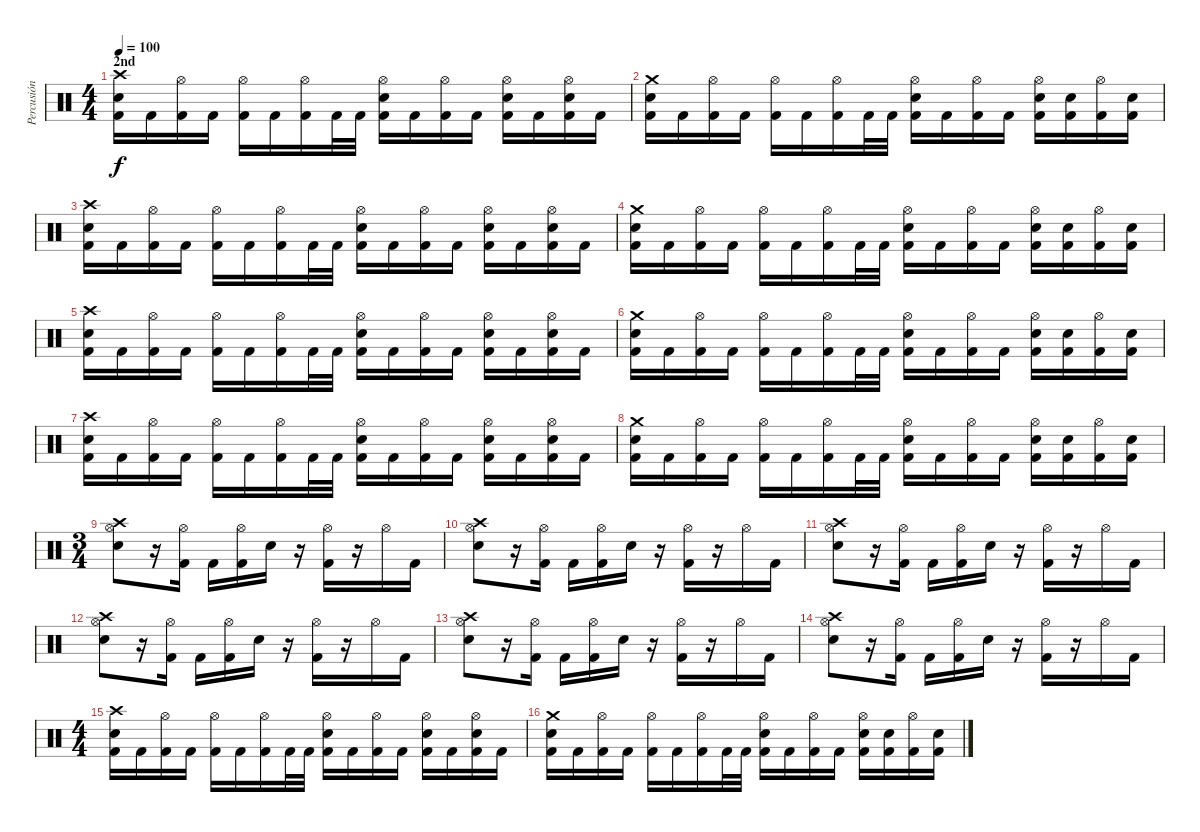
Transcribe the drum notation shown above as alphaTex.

\track ("Percusión" "Percusión") {instrument percussion}
\staff {score}
\articulation defaults
\ts (4 4)
\section ("" "2nd")
\tempo 100
\clef neutral
\ks c
("Crash high (hit)" "Electric Snare (hit)" "Kick (hit) 2").16{dy f} "Kick (hit) 2".16 ("Hi-Hat (open)" "Kick (hit) 2").16 "Kick (hit) 2".16 ("Hi-Hat (open)" "Kick (hit) 2").16 "Kick (hit) 2".16 ("Hi-Hat (open)" "Kick (hit) 2").16 "Kick (hit) 2".32 "Kick (hit) 2".32 ("Hi-Hat (open)" "Electric Snare (hit)" "Kick (hit) 2").16 "Kick (hit) 2".16 ("Hi-Hat (open)" "Kick (hit) 2").16 "Kick (hit) 2".16 ("Hi-Hat (open)" "Electric Snare (hit)" "Kick (hit) 2").16 "Kick (hit) 2".16 ("Hi-Hat (open)" "Electric Snare (hit)" "Kick (hit) 2").16 "Kick (hit) 2".16 |
("Crash medium (hit)" "Electric Snare (hit)" "Kick (hit) 2").16 "Kick (hit) 2".16 ("Hi-Hat (open)" "Kick (hit) 2").16 "Kick (hit) 2".16 ("Hi-Hat (open)" "Kick (hit) 2").16 "Kick (hit) 2".16 ("Hi-Hat (open)" "Kick (hit) 2").16 "Kick (hit) 2".32 "Kick (hit) 2".32 ("Hi-Hat (open)" "Electric Snare (hit)" "Kick (hit) 2").16 "Kick (hit) 2".16 ("Hi-Hat (open)" "Kick (hit) 2").16 "Kick (hit) 2".16 ("Hi-Hat (open)" "Electric Snare (hit)" "Kick (hit) 2").16 ("Electric Snare (hit)" "Kick (hit) 2").16 ("Hi-Hat (open)" "Kick (hit) 2").16 ("Electric Snare (hit)" "Kick (hit) 2").16 |
("Crash high (hit)" "Electric Snare (hit)" "Kick (hit) 2").16 "Kick (hit) 2".16 ("Hi-Hat (open)" "Kick (hit) 2").16 "Kick (hit) 2".16 ("Hi-Hat (open)" "Kick (hit) 2").16 "Kick (hit) 2".16 ("Hi-Hat (open)" "Kick (hit) 2").16 "Kick (hit) 2".32 "Kick (hit) 2".32 ("Hi-Hat (open)" "Electric Snare (hit)" "Kick (hit) 2").16 "Kick (hit) 2".16 ("Hi-Hat (open)" "Kick (hit) 2").16 "Kick (hit) 2".16 ("Hi-Hat (open)" "Electric Snare (hit)" "Kick (hit) 2").16 "Kick (hit) 2".16 ("Hi-Hat (open)" "Electric Snare (hit)" "Kick (hit) 2").16 "Kick (hit) 2".16 |
("Crash medium (hit)" "Electric Snare (hit)" "Kick (hit) 2").16 "Kick (hit) 2".16 ("Hi-Hat (open)" "Kick (hit) 2").16 "Kick (hit) 2".16 ("Hi-Hat (open)" "Kick (hit) 2").16 "Kick (hit) 2".16 ("Hi-Hat (open)" "Kick (hit) 2").16 "Kick (hit) 2".32 "Kick (hit) 2".32 ("Hi-Hat (open)" "Electric Snare (hit)" "Kick (hit) 2").16 "Kick (hit) 2".16 ("Hi-Hat (open)" "Kick (hit) 2").16 "Kick (hit) 2".16 ("Hi-Hat (open)" "Electric Snare (hit)" "Kick (hit) 2").16 ("Electric Snare (hit)" "Kick (hit) 2").16 ("Hi-Hat (open)" "Kick (hit) 2").16 ("Electric Snare (hit)" "Kick (hit) 2").16 |
("Crash high (hit)" "Electric Snare (hit)" "Kick (hit) 2").16 "Kick (hit) 2".16 ("Hi-Hat (open)" "Kick (hit) 2").16 "Kick (hit) 2".16 ("Hi-Hat (open)" "Kick (hit) 2").16 "Kick (hit) 2".16 ("Hi-Hat (open)" "Kick (hit) 2").16 "Kick (hit) 2".32 "Kick (hit) 2".32 ("Hi-Hat (open)" "Electric Snare (hit)" "Kick (hit) 2").16 "Kick (hit) 2".16 ("Hi-Hat (open)" "Kick (hit) 2").16 "Kick (hit) 2".16 ("Hi-Hat (open)" "Electric Snare (hit)" "Kick (hit) 2").16 "Kick (hit) 2".16 ("Hi-Hat (open)" "Electric Snare (hit)" "Kick (hit) 2").16 "Kick (hit) 2".16 |
("Crash medium (hit)" "Electric Snare (hit)" "Kick (hit) 2").16 "Kick (hit) 2".16 ("Hi-Hat (open)" "Kick (hit) 2").16 "Kick (hit) 2".16 ("Hi-Hat (open)" "Kick (hit) 2").16 "Kick (hit) 2".16 ("Hi-Hat (open)" "Kick (hit) 2").16 "Kick (hit) 2".32 "Kick (hit) 2".32 ("Hi-Hat (open)" "Electric Snare (hit)" "Kick (hit) 2").16 "Kick (hit) 2".16 ("Hi-Hat (open)" "Kick (hit) 2").16 "Kick (hit) 2".16 ("Hi-Hat (open)" "Electric Snare (hit)" "Kick (hit) 2").16 ("Electric Snare (hit)" "Kick (hit) 2").16 ("Hi-Hat (open)" "Kick (hit) 2").16 ("Electric Snare (hit)" "Kick (hit) 2").16 |
("Crash high (hit)" "Electric Snare (hit)" "Kick (hit) 2").16 "Kick (hit) 2".16 ("Hi-Hat (open)" "Kick (hit) 2").16 "Kick (hit) 2".16 ("Hi-Hat (open)" "Kick (hit) 2").16 "Kick (hit) 2".16 ("Hi-Hat (open)" "Kick (hit) 2").16 "Kick (hit) 2".32 "Kick (hit) 2".32 ("Hi-Hat (open)" "Electric Snare (hit)" "Kick (hit) 2").16 "Kick (hit) 2".16 ("Hi-Hat (open)" "Kick (hit) 2").16 "Kick (hit) 2".16 ("Hi-Hat (open)" "Electric Snare (hit)" "Kick (hit) 2").16 "Kick (hit) 2".16 ("Hi-Hat (open)" "Electric Snare (hit)" "Kick (hit) 2").16 "Kick (hit) 2".16 |
("Crash medium (hit)" "Electric Snare (hit)" "Kick (hit) 2").16 "Kick (hit) 2".16 ("Hi-Hat (open)" "Kick (hit) 2").16 "Kick (hit) 2".16 ("Hi-Hat (open)" "Kick (hit) 2").16 "Kick (hit) 2".16 ("Hi-Hat (open)" "Kick (hit) 2").16 "Kick (hit) 2".32 "Kick (hit) 2".32 ("Hi-Hat (open)" "Electric Snare (hit)" "Kick (hit) 2").16 "Kick (hit) 2".16 ("Hi-Hat (open)" "Kick (hit) 2").16 "Kick (hit) 2".16 ("Hi-Hat (open)" "Electric Snare (hit)" "Kick (hit) 2").16 ("Electric Snare (hit)" "Kick (hit) 2").16 ("Hi-Hat (open)" "Kick (hit) 2").16 ("Electric Snare (hit)" "Kick (hit) 2").16 |
\ts (3 4)
("Crash high (hit)" "Hi-Hat (open)" "Electric Snare (hit)").8 r.16 ("Hi-Hat (open)" "Kick (hit) 2").16 "Kick (hit) 2".16 ("Hi-Hat (open)" "Kick (hit) 2").16 "Electric Snare (hit)".16 r.16 ("Hi-Hat (open)" "Kick (hit) 2").16 r.16 "Hi-Hat (open)".16 "Kick (hit) 2".16 |
("Crash high (hit)" "Hi-Hat (open)" "Electric Snare (hit)").8 r.16 ("Hi-Hat (open)" "Kick (hit) 2").16 "Kick (hit) 2".16 ("Hi-Hat (open)" "Kick (hit) 2").16 "Electric Snare (hit)".16 r.16 ("Hi-Hat (open)" "Kick (hit) 2").16 r.16 "Hi-Hat (open)".16 "Kick (hit) 2".16 |
("Crash high (hit)" "Hi-Hat (open)" "Electric Snare (hit)").8 r.16 ("Hi-Hat (open)" "Kick (hit) 2").16 "Kick (hit) 2".16 ("Hi-Hat (open)" "Kick (hit) 2").16 "Electric Snare (hit)".16 r.16 ("Hi-Hat (open)" "Kick (hit) 2").16 r.16 "Hi-Hat (open)".16 "Kick (hit) 2".16 |
("Crash high (hit)" "Hi-Hat (open)" "Electric Snare (hit)").8 r.16 ("Hi-Hat (open)" "Kick (hit) 2").16 "Kick (hit) 2".16 ("Hi-Hat (open)" "Kick (hit) 2").16 "Electric Snare (hit)".16 r.16 ("Hi-Hat (open)" "Kick (hit) 2").16 r.16 "Hi-Hat (open)".16 "Kick (hit) 2".16 |
("Crash high (hit)" "Hi-Hat (open)" "Electric Snare (hit)").8 r.16 ("Hi-Hat (open)" "Kick (hit) 2").16 "Kick (hit) 2".16 ("Hi-Hat (open)" "Kick (hit) 2").16 "Electric Snare (hit)".16 r.16 ("Hi-Hat (open)" "Kick (hit) 2").16 r.16 "Hi-Hat (open)".16 "Kick (hit) 2".16 |
("Crash high (hit)" "Hi-Hat (open)" "Electric Snare (hit)").8 r.16 ("Hi-Hat (open)" "Kick (hit) 2").16 "Kick (hit) 2".16 ("Hi-Hat (open)" "Kick (hit) 2").16 "Electric Snare (hit)".16 r.16 ("Hi-Hat (open)" "Kick (hit) 2").16 r.16 "Hi-Hat (open)".16 "Kick (hit) 2".16 |
\ts (4 4)
("Crash high (hit)" "Electric Snare (hit)" "Kick (hit) 2").16 "Kick (hit) 2".16 ("Hi-Hat (open)" "Kick (hit) 2").16 "Kick (hit) 2".16 ("Hi-Hat (open)" "Kick (hit) 2").16 "Kick (hit) 2".16 ("Hi-Hat (open)" "Kick (hit) 2").16 "Kick (hit) 2".32 "Kick (hit) 2".32 ("Hi-Hat (open)" "Electric Snare (hit)" "Kick (hit) 2").16 "Kick (hit) 2".16 ("Hi-Hat (open)" "Kick (hit) 2").16 "Kick (hit) 2".16 ("Hi-Hat (open)" "Electric Snare (hit)" "Kick (hit) 2").16 "Kick (hit) 2".16 ("Hi-Hat (open)" "Electric Snare (hit)" "Kick (hit) 2").16 "Kick (hit) 2".16 |
("Crash medium (hit)" "Electric Snare (hit)" "Kick (hit) 2").16 "Kick (hit) 2".16 ("Hi-Hat (open)" "Kick (hit) 2").16 "Kick (hit) 2".16 ("Hi-Hat (open)" "Kick (hit) 2").16 "Kick (hit) 2".16 ("Hi-Hat (open)" "Kick (hit) 2").16 "Kick (hit) 2".32 "Kick (hit) 2".32 ("Hi-Hat (open)" "Electric Snare (hit)" "Kick (hit) 2").16 "Kick (hit) 2".16 ("Hi-Hat (open)" "Kick (hit) 2").16 "Kick (hit) 2".16 ("Hi-Hat (open)" "Electric Snare (hit)" "Kick (hit) 2").16 ("Electric Snare (hit)" "Kick (hit) 2").16 ("Hi-Hat (open)" "Kick (hit) 2").16 ("Electric Snare (hit)" "Kick (hit) 2").16
